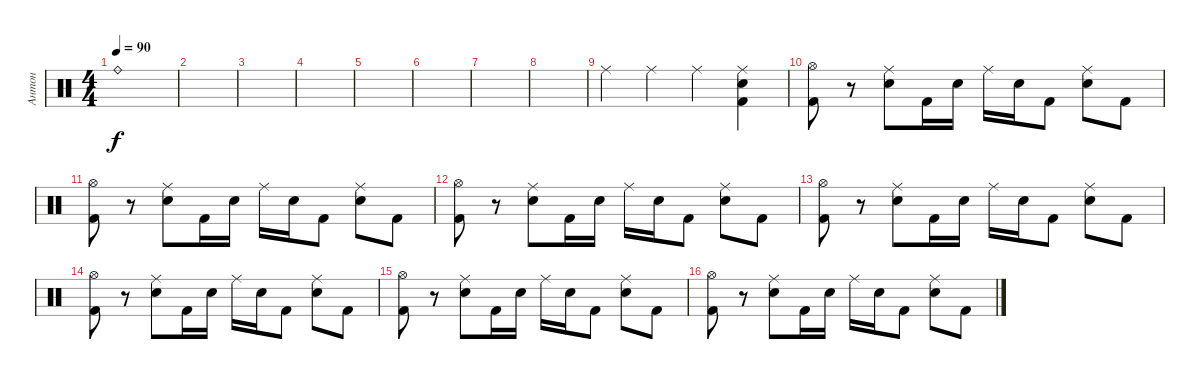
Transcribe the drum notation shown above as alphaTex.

\track ("Антон" "Антон") {instrument percussion}
\staff {score}
\articulation defaults
\ts (4 4)
\tempo 90
\clef neutral
\ks c "Ride (bell)".1{dy f}
|
|
|
|
|
|
|
|
"Ride (middle)".4 "Ride (middle)".4 "Ride (middle)".4 ("Electric Snare (hit)" "Kick (hit) 2" "Ride (middle)").4 |
("Hi-Hat (open)" "Kick (hit) 2").8 r.8 ("Ride (middle)" "Electric Snare (hit)").8 "Kick (hit) 2".16 "Electric Snare (hit)".16 "Ride (middle)".16 "Electric Snare (hit)".16 "Kick (hit) 2".8 ("Ride (middle)" "Electric Snare (hit)").8 "Kick (hit) 2".8 |
("Hi-Hat (open)" "Kick (hit) 2").8 r.8 ("Ride (middle)" "Electric Snare (hit)").8 "Kick (hit) 2".16 "Electric Snare (hit)".16 "Ride (middle)".16 "Electric Snare (hit)".16 "Kick (hit) 2".8 ("Ride (middle)" "Electric Snare (hit)").8 "Kick (hit) 2".8 |
("Hi-Hat (open)" "Kick (hit) 2").8 r.8 ("Ride (middle)" "Electric Snare (hit)").8 "Kick (hit) 2".16 "Electric Snare (hit)".16 "Ride (middle)".16 "Electric Snare (hit)".16 "Kick (hit) 2".8 ("Ride (middle)" "Electric Snare (hit)").8 "Kick (hit) 2".8 |
("Hi-Hat (open)" "Kick (hit) 2").8 r.8 ("Ride (middle)" "Electric Snare (hit)").8 "Kick (hit) 2".16 "Electric Snare (hit)".16 "Ride (middle)".16 "Electric Snare (hit)".16 "Kick (hit) 2".8 ("Ride (middle)" "Electric Snare (hit)").8 "Kick (hit) 2".8 |
("Hi-Hat (open)" "Kick (hit) 2").8 r.8 ("Ride (middle)" "Electric Snare (hit)").8 "Kick (hit) 2".16 "Electric Snare (hit)".16 "Ride (middle)".16 "Electric Snare (hit)".16 "Kick (hit) 2".8 ("Ride (middle)" "Electric Snare (hit)").8 "Kick (hit) 2".8 |
("Hi-Hat (open)" "Kick (hit) 2").8 r.8 ("Ride (middle)" "Electric Snare (hit)").8 "Kick (hit) 2".16 "Electric Snare (hit)".16 "Ride (middle)".16 "Electric Snare (hit)".16 "Kick (hit) 2".8 ("Ride (middle)" "Electric Snare (hit)").8 "Kick (hit) 2".8 |
("Hi-Hat (open)" "Kick (hit) 2").8 r.8 ("Ride (middle)" "Electric Snare (hit)").8 "Kick (hit) 2".16 "Electric Snare (hit)".16 "Ride (middle)".16 "Electric Snare (hit)".16 "Kick (hit) 2".8 ("Ride (middle)" "Electric Snare (hit)").8 "Kick (hit) 2".8
